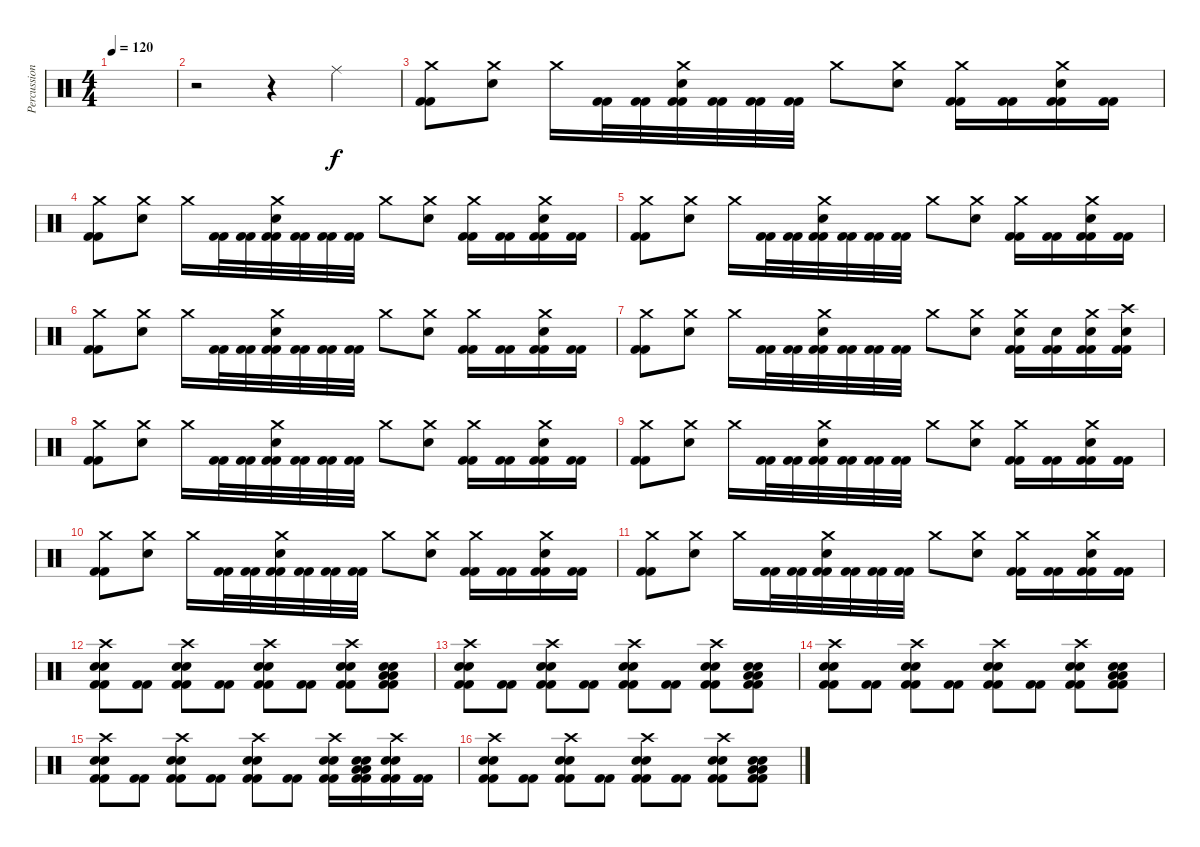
\track ("Percussions" "Percussion") {instrument percussion}
\staff {score}
\articulation defaults
\ts (4 4)
\tempo 120
\clef neutral
\ks c
|
r.2 r.4 "Ride (middle)".4 |
("Crash medium (hit)" "Kick (hit) 2" "Kick (hit) 2").8 ("Crash medium (hit)" "Electric Snare (hit)").8 "Crash medium (hit)".16 ("Kick (hit) 2" "Kick (hit) 2").32 ("Kick (hit) 2" "Kick (hit) 2").32 ("Crash medium (hit)" "Electric Snare (hit)" "Kick (hit) 2" "Kick (hit) 2").32 ("Kick (hit) 2" "Kick (hit) 2").32 ("Kick (hit) 2" "Kick (hit) 2").32 ("Kick (hit) 2" "Kick (hit) 2").32 "Crash medium (hit)".8 ("Crash medium (hit)" "Electric Snare (hit)").8 ("Crash medium (hit)" "Kick (hit) 2" "Kick (hit) 2").16 ("Kick (hit) 2" "Kick (hit) 2").16 ("Crash medium (hit)" "Electric Snare (hit)" "Kick (hit) 2" "Kick (hit) 2").16 ("Kick (hit) 2" "Kick (hit) 2").16 |
("Crash medium (hit)" "Kick (hit) 2" "Kick (hit) 2").8 ("Crash medium (hit)" "Electric Snare (hit)").8 "Crash medium (hit)".16 ("Kick (hit) 2" "Kick (hit) 2").32 ("Kick (hit) 2" "Kick (hit) 2").32 ("Crash medium (hit)" "Electric Snare (hit)" "Kick (hit) 2" "Kick (hit) 2").32 ("Kick (hit) 2" "Kick (hit) 2").32 ("Kick (hit) 2" "Kick (hit) 2").32 ("Kick (hit) 2" "Kick (hit) 2").32 "Crash medium (hit)".8 ("Crash medium (hit)" "Electric Snare (hit)").8 ("Crash medium (hit)" "Kick (hit) 2" "Kick (hit) 2").16 ("Kick (hit) 2" "Kick (hit) 2").16 ("Crash medium (hit)" "Electric Snare (hit)" "Kick (hit) 2" "Kick (hit) 2").16 ("Kick (hit) 2" "Kick (hit) 2").16 |
("Crash medium (hit)" "Kick (hit) 2" "Kick (hit) 2").8 ("Crash medium (hit)" "Electric Snare (hit)").8 "Crash medium (hit)".16 ("Kick (hit) 2" "Kick (hit) 2").32 ("Kick (hit) 2" "Kick (hit) 2").32 ("Crash medium (hit)" "Electric Snare (hit)" "Kick (hit) 2" "Kick (hit) 2").32 ("Kick (hit) 2" "Kick (hit) 2").32 ("Kick (hit) 2" "Kick (hit) 2").32 ("Kick (hit) 2" "Kick (hit) 2").32 "Crash medium (hit)".8 ("Crash medium (hit)" "Electric Snare (hit)").8 ("Crash medium (hit)" "Kick (hit) 2" "Kick (hit) 2").16 ("Kick (hit) 2" "Kick (hit) 2").16 ("Crash medium (hit)" "Electric Snare (hit)" "Kick (hit) 2" "Kick (hit) 2").16 ("Kick (hit) 2" "Kick (hit) 2").16 |
("Crash medium (hit)" "Kick (hit) 2" "Kick (hit) 2").8 ("Crash medium (hit)" "Electric Snare (hit)").8 "Crash medium (hit)".16 ("Kick (hit) 2" "Kick (hit) 2").32 ("Kick (hit) 2" "Kick (hit) 2").32 ("Crash medium (hit)" "Electric Snare (hit)" "Kick (hit) 2" "Kick (hit) 2").32 ("Kick (hit) 2" "Kick (hit) 2").32 ("Kick (hit) 2" "Kick (hit) 2").32 ("Kick (hit) 2" "Kick (hit) 2").32 "Crash medium (hit)".8 ("Crash medium (hit)" "Electric Snare (hit)").8 ("Crash medium (hit)" "Kick (hit) 2" "Kick (hit) 2").16 ("Kick (hit) 2" "Kick (hit) 2").16 ("Crash medium (hit)" "Electric Snare (hit)" "Kick (hit) 2" "Kick (hit) 2").16 ("Kick (hit) 2" "Kick (hit) 2").16 |
("Crash medium (hit)" "Kick (hit) 2" "Kick (hit) 2").8 ("Crash medium (hit)" "Electric Snare (hit)").8 "Crash medium (hit)".16 ("Kick (hit) 2" "Kick (hit) 2").32 ("Kick (hit) 2" "Kick (hit) 2").32 ("Crash medium (hit)" "Electric Snare (hit)" "Kick (hit) 2" "Kick (hit) 2").32 ("Kick (hit) 2" "Kick (hit) 2").32 ("Kick (hit) 2" "Kick (hit) 2").32 ("Kick (hit) 2" "Kick (hit) 2").32 "Crash medium (hit)".8 ("Crash medium (hit)" "Electric Snare (hit)").8 ("Crash medium (hit)" "Electric Snare (hit)" "Kick (hit) 2" "Kick (hit) 2").16 ("Electric Snare (hit)" "Kick (hit) 2" "Kick (hit) 2").16 ("Crash medium (hit)" "Electric Snare (hit)" "Kick (hit) 2" "Kick (hit) 2").16 ("Crash high (hit)" "Electric Snare (hit)" "Kick (hit) 2" "Kick (hit) 2").16 |
("Crash medium (hit)" "Kick (hit) 2" "Kick (hit) 2").8 ("Crash medium (hit)" "Electric Snare (hit)").8 "Crash medium (hit)".16 ("Kick (hit) 2" "Kick (hit) 2").32 ("Kick (hit) 2" "Kick (hit) 2").32 ("Crash medium (hit)" "Electric Snare (hit)" "Kick (hit) 2" "Kick (hit) 2").32 ("Kick (hit) 2" "Kick (hit) 2").32 ("Kick (hit) 2" "Kick (hit) 2").32 ("Kick (hit) 2" "Kick (hit) 2").32 "Crash medium (hit)".8 ("Crash medium (hit)" "Electric Snare (hit)").8 ("Crash medium (hit)" "Kick (hit) 2" "Kick (hit) 2").16 ("Kick (hit) 2" "Kick (hit) 2").16 ("Crash medium (hit)" "Electric Snare (hit)" "Kick (hit) 2" "Kick (hit) 2").16 ("Kick (hit) 2" "Kick (hit) 2").16 |
("Crash medium (hit)" "Kick (hit) 2" "Kick (hit) 2").8 ("Crash medium (hit)" "Electric Snare (hit)").8 "Crash medium (hit)".16 ("Kick (hit) 2" "Kick (hit) 2").32 ("Kick (hit) 2" "Kick (hit) 2").32 ("Crash medium (hit)" "Electric Snare (hit)" "Kick (hit) 2" "Kick (hit) 2").32 ("Kick (hit) 2" "Kick (hit) 2").32 ("Kick (hit) 2" "Kick (hit) 2").32 ("Kick (hit) 2" "Kick (hit) 2").32 "Crash medium (hit)".8 ("Crash medium (hit)" "Electric Snare (hit)").8 ("Crash medium (hit)" "Kick (hit) 2" "Kick (hit) 2").16 ("Kick (hit) 2" "Kick (hit) 2").16 ("Crash medium (hit)" "Electric Snare (hit)" "Kick (hit) 2" "Kick (hit) 2").16 ("Kick (hit) 2" "Kick (hit) 2").16 |
("Crash medium (hit)" "Kick (hit) 2" "Kick (hit) 2").8 ("Crash medium (hit)" "Electric Snare (hit)").8 "Crash medium (hit)".16 ("Kick (hit) 2" "Kick (hit) 2").32 ("Kick (hit) 2" "Kick (hit) 2").32 ("Crash medium (hit)" "Electric Snare (hit)" "Kick (hit) 2" "Kick (hit) 2").32 ("Kick (hit) 2" "Kick (hit) 2").32 ("Kick (hit) 2" "Kick (hit) 2").32 ("Kick (hit) 2" "Kick (hit) 2").32 "Crash medium (hit)".8 ("Crash medium (hit)" "Electric Snare (hit)").8 ("Crash medium (hit)" "Kick (hit) 2" "Kick (hit) 2").16 ("Kick (hit) 2" "Kick (hit) 2").16 ("Crash medium (hit)" "Electric Snare (hit)" "Kick (hit) 2" "Kick (hit) 2").16 ("Kick (hit) 2" "Kick (hit) 2").16 |
("Crash medium (hit)" "Kick (hit) 2" "Kick (hit) 2").8 ("Crash medium (hit)" "Electric Snare (hit)").8 "Crash medium (hit)".16 ("Kick (hit) 2" "Kick (hit) 2").32 ("Kick (hit) 2" "Kick (hit) 2").32 ("Crash medium (hit)" "Electric Snare (hit)" "Kick (hit) 2" "Kick (hit) 2").32 ("Kick (hit) 2" "Kick (hit) 2").32 ("Kick (hit) 2" "Kick (hit) 2").32 ("Kick (hit) 2" "Kick (hit) 2").32 "Crash medium (hit)".8 ("Crash medium (hit)" "Electric Snare (hit)").8 ("Crash medium (hit)" "Kick (hit) 2" "Kick (hit) 2").16 ("Kick (hit) 2" "Kick (hit) 2").16 ("Crash medium (hit)" "Electric Snare (hit)" "Kick (hit) 2" "Kick (hit) 2").16 ("Kick (hit) 2" "Kick (hit) 2").16 |
("Crash high (hit)" "Electric Snare (hit)" "Electric Snare (hit)" "Kick (hit) 2" "Kick (hit) 2").8 ("Kick (hit) 2" "Kick (hit) 2").8 ("Crash high (hit)" "Electric Snare (hit)" "Electric Snare (hit)" "Kick (hit) 2" "Kick (hit) 2").8 ("Kick (hit) 2" "Kick (hit) 2").8 ("Crash high (hit)" "Electric Snare (hit)" "Electric Snare (hit)" "Kick (hit) 2" "Kick (hit) 2").8 ("Kick (hit) 2" "Kick (hit) 2").8 ("Crash high (hit)" "Electric Snare (hit)" "Electric Snare (hit)" "Kick (hit) 2" "Kick (hit) 2").8 ("Low Floor Tom (hit)" "Low Floor Tom (hit)" "Electric Snare (hit)" "Electric Snare (hit)" "Kick (hit) 2" "Kick (hit) 2").8 |
("Crash high (hit)" "Electric Snare (hit)" "Electric Snare (hit)" "Kick (hit) 2" "Kick (hit) 2").8 ("Kick (hit) 2" "Kick (hit) 2").8 ("Crash high (hit)" "Electric Snare (hit)" "Electric Snare (hit)" "Kick (hit) 2" "Kick (hit) 2").8 ("Kick (hit) 2" "Kick (hit) 2").8 ("Crash high (hit)" "Electric Snare (hit)" "Electric Snare (hit)" "Kick (hit) 2" "Kick (hit) 2").8 ("Kick (hit) 2" "Kick (hit) 2").8 ("Crash high (hit)" "Electric Snare (hit)" "Electric Snare (hit)" "Kick (hit) 2" "Kick (hit) 2").8 ("Low Floor Tom (hit)" "Low Floor Tom (hit)" "Electric Snare (hit)" "Electric Snare (hit)" "Kick (hit) 2" "Kick (hit) 2").8 |
("Crash high (hit)" "Electric Snare (hit)" "Electric Snare (hit)" "Kick (hit) 2" "Kick (hit) 2").8 ("Kick (hit) 2" "Kick (hit) 2").8 ("Crash high (hit)" "Electric Snare (hit)" "Electric Snare (hit)" "Kick (hit) 2" "Kick (hit) 2").8 ("Kick (hit) 2" "Kick (hit) 2").8 ("Crash high (hit)" "Electric Snare (hit)" "Electric Snare (hit)" "Kick (hit) 2" "Kick (hit) 2").8 ("Kick (hit) 2" "Kick (hit) 2").8 ("Crash high (hit)" "Electric Snare (hit)" "Electric Snare (hit)" "Kick (hit) 2" "Kick (hit) 2").8 ("Low Floor Tom (hit)" "Low Floor Tom (hit)" "Electric Snare (hit)" "Electric Snare (hit)" "Kick (hit) 2" "Kick (hit) 2").8 |
("Crash high (hit)" "Electric Snare (hit)" "Electric Snare (hit)" "Kick (hit) 2" "Kick (hit) 2").8 ("Kick (hit) 2" "Kick (hit) 2").8 ("Crash high (hit)" "Electric Snare (hit)" "Electric Snare (hit)" "Kick (hit) 2" "Kick (hit) 2").8 ("Kick (hit) 2" "Kick (hit) 2").8 ("Crash high (hit)" "Electric Snare (hit)" "Electric Snare (hit)" "Kick (hit) 2" "Kick (hit) 2").8 ("Kick (hit) 2" "Kick (hit) 2").8 ("Crash high (hit)" "Electric Snare (hit)" "Electric Snare (hit)" "Kick (hit) 2" "Kick (hit) 2").16 ("Low Floor Tom (hit)" "Low Floor Tom (hit)" "Electric Snare (hit)" "Electric Snare (hit)" "Kick (hit) 2" "Kick (hit) 2").16 ("Crash high (hit)" "Electric Snare (hit)" "Electric Snare (hit)" "Kick (hit) 2" "Kick (hit) 2").16 ("Kick (hit) 2" "Kick (hit) 2").16 |
("Crash high (hit)" "Electric Snare (hit)" "Electric Snare (hit)" "Kick (hit) 2" "Kick (hit) 2").8 ("Kick (hit) 2" "Kick (hit) 2").8 ("Crash high (hit)" "Electric Snare (hit)" "Electric Snare (hit)" "Kick (hit) 2" "Kick (hit) 2").8 ("Kick (hit) 2" "Kick (hit) 2").8 ("Crash high (hit)" "Electric Snare (hit)" "Electric Snare (hit)" "Kick (hit) 2" "Kick (hit) 2").8 ("Kick (hit) 2" "Kick (hit) 2").8 ("Crash high (hit)" "Electric Snare (hit)" "Electric Snare (hit)" "Kick (hit) 2" "Kick (hit) 2").8 ("Low Floor Tom (hit)" "Low Floor Tom (hit)" "Electric Snare (hit)" "Electric Snare (hit)" "Kick (hit) 2" "Kick (hit) 2").8
